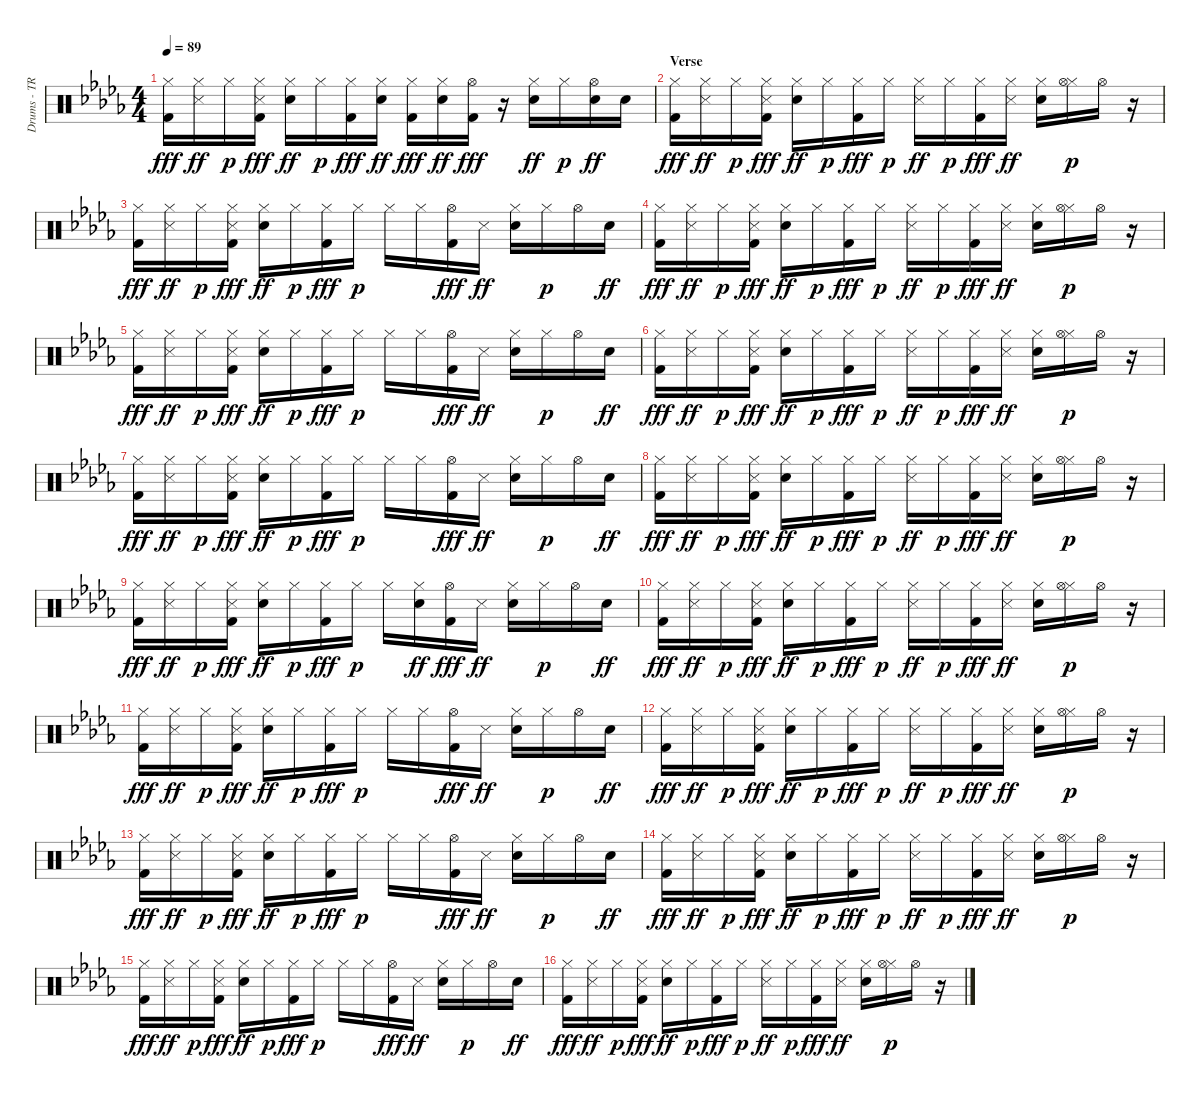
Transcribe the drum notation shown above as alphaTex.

\track ("Drums - TR808" "Drums - TR") {instrument percussion}
\staff {score}
\articulation defaults
\ts (4 4)
\tempo 89
\clef neutral
\ks bbminor
("Kick (hit) 2" "Hi-Hat (closed)").16{dy fff} ("Snare (side stick) 3" "Hi-Hat (closed)").16{dy ff} "Hi-Hat (closed)".16{dy p} ("Kick (hit) 2" "Snare (side stick) 3" "Hi-Hat (closed)").16{dy fff} ("Snare (hit) 2" "Hi-Hat (closed)").16{dy ff} "Hi-Hat (closed)".16{dy p} ("Kick (hit) 2" "Hi-Hat (closed)").16{dy fff} ("Snare (hit) 2" "Hi-Hat (closed)").16{dy ff} ("Kick (hit) 2" "Hi-Hat (closed)").16{dy fff} ("Snare (hit) 2" "Hi-Hat (closed)").16{dy ff} ("Kick (hit) 2" "Hi-Hat (open)").16{dy fff} r.16 ("Snare (hit) 2" "Hi-Hat (closed)").16{dy ff} "Hi-Hat (closed)".16{dy p} ("Snare (hit) 2" "Hi-Hat (open)").16{dy ff} "Snare (hit) 2".16 |
\section ("" "Verse")
("Kick (hit) 2" "Hi-Hat (closed)").16{dy fff} ("Snare (side stick) 3" "Hi-Hat (closed)").16{dy ff} "Hi-Hat (closed)".16{dy p} ("Kick (hit) 2" "Snare (side stick) 3" "Hi-Hat (closed)").16{dy fff} ("Snare (hit) 2" "Hi-Hat (closed)").16{dy ff} "Hi-Hat (closed)".16{dy p} ("Kick (hit) 2" "Hi-Hat (closed)").16{dy fff} "Hi-Hat (closed)".16{dy p} ("Snare (side stick) 3" "Hi-Hat (closed)").16{dy ff} "Hi-Hat (closed)".16{dy p} ("Kick (hit) 2" "Hi-Hat (closed)").16{dy fff} ("Snare (side stick) 3" "Hi-Hat (closed)").16{dy ff} ("Snare (hit) 2" "Hi-Hat (closed)").16 ("Hi-Hat (closed)" "Hi-Hat (open)").16{dy p} "Hi-Hat (open)".16 r.16 |
("Kick (hit) 2" "Hi-Hat (closed)").16{dy fff} ("Snare (side stick) 3" "Hi-Hat (closed)").16{dy ff} "Hi-Hat (closed)".16{dy p} ("Kick (hit) 2" "Snare (side stick) 3" "Hi-Hat (closed)").16{dy fff} ("Snare (hit) 2" "Hi-Hat (closed)").16{dy ff} "Hi-Hat (closed)".16{dy p} ("Kick (hit) 2" "Hi-Hat (closed)").16{dy fff} "Hi-Hat (closed)".16{dy p} "Hi-Hat (closed)".16 "Hi-Hat (closed)".16 ("Kick (hit) 2" "Hi-Hat (open)").16{dy fff} "Snare (side stick) 3".16{dy ff} ("Snare (hit) 2" "Hi-Hat (closed)").16 "Hi-Hat (closed)".16{dy p} "Hi-Hat (open)".16 "Snare (hit) 2".16{dy ff} |
("Kick (hit) 2" "Hi-Hat (closed)").16{dy fff} ("Snare (side stick) 3" "Hi-Hat (closed)").16{dy ff} "Hi-Hat (closed)".16{dy p} ("Kick (hit) 2" "Snare (side stick) 3" "Hi-Hat (closed)").16{dy fff} ("Snare (hit) 2" "Hi-Hat (closed)").16{dy ff} "Hi-Hat (closed)".16{dy p} ("Kick (hit) 2" "Hi-Hat (closed)").16{dy fff} "Hi-Hat (closed)".16{dy p} ("Snare (side stick) 3" "Hi-Hat (closed)").16{dy ff} "Hi-Hat (closed)".16{dy p} ("Kick (hit) 2" "Hi-Hat (closed)").16{dy fff} ("Snare (side stick) 3" "Hi-Hat (closed)").16{dy ff} ("Snare (hit) 2" "Hi-Hat (closed)").16 ("Hi-Hat (closed)" "Hi-Hat (open)").16{dy p} "Hi-Hat (open)".16 r.16 |
("Kick (hit) 2" "Hi-Hat (closed)").16{dy fff} ("Snare (side stick) 3" "Hi-Hat (closed)").16{dy ff} "Hi-Hat (closed)".16{dy p} ("Kick (hit) 2" "Snare (side stick) 3" "Hi-Hat (closed)").16{dy fff} ("Snare (hit) 2" "Hi-Hat (closed)").16{dy ff} "Hi-Hat (closed)".16{dy p} ("Kick (hit) 2" "Hi-Hat (closed)").16{dy fff} "Hi-Hat (closed)".16{dy p} "Hi-Hat (closed)".16 "Hi-Hat (closed)".16 ("Kick (hit) 2" "Hi-Hat (open)").16{dy fff} "Snare (side stick) 3".16{dy ff} ("Snare (hit) 2" "Hi-Hat (closed)").16 "Hi-Hat (closed)".16{dy p} "Hi-Hat (open)".16 "Snare (hit) 2".16{dy ff} |
("Kick (hit) 2" "Hi-Hat (closed)").16{dy fff} ("Snare (side stick) 3" "Hi-Hat (closed)").16{dy ff} "Hi-Hat (closed)".16{dy p} ("Kick (hit) 2" "Snare (side stick) 3" "Hi-Hat (closed)").16{dy fff} ("Snare (hit) 2" "Hi-Hat (closed)").16{dy ff} "Hi-Hat (closed)".16{dy p} ("Kick (hit) 2" "Hi-Hat (closed)").16{dy fff} "Hi-Hat (closed)".16{dy p} ("Snare (side stick) 3" "Hi-Hat (closed)").16{dy ff} "Hi-Hat (closed)".16{dy p} ("Kick (hit) 2" "Hi-Hat (closed)").16{dy fff} ("Snare (side stick) 3" "Hi-Hat (closed)").16{dy ff} ("Snare (hit) 2" "Hi-Hat (closed)").16 ("Hi-Hat (closed)" "Hi-Hat (open)").16{dy p} "Hi-Hat (open)".16 r.16 |
("Kick (hit) 2" "Hi-Hat (closed)").16{dy fff} ("Snare (side stick) 3" "Hi-Hat (closed)").16{dy ff} "Hi-Hat (closed)".16{dy p} ("Kick (hit) 2" "Snare (side stick) 3" "Hi-Hat (closed)").16{dy fff} ("Snare (hit) 2" "Hi-Hat (closed)").16{dy ff} "Hi-Hat (closed)".16{dy p} ("Kick (hit) 2" "Hi-Hat (closed)").16{dy fff} "Hi-Hat (closed)".16{dy p} "Hi-Hat (closed)".16 "Hi-Hat (closed)".16 ("Kick (hit) 2" "Hi-Hat (open)").16{dy fff} "Snare (side stick) 3".16{dy ff} ("Snare (hit) 2" "Hi-Hat (closed)").16 "Hi-Hat (closed)".16{dy p} "Hi-Hat (open)".16 "Snare (hit) 2".16{dy ff} |
("Kick (hit) 2" "Hi-Hat (closed)").16{dy fff} ("Snare (side stick) 3" "Hi-Hat (closed)").16{dy ff} "Hi-Hat (closed)".16{dy p} ("Kick (hit) 2" "Snare (side stick) 3" "Hi-Hat (closed)").16{dy fff} ("Snare (hit) 2" "Hi-Hat (closed)").16{dy ff} "Hi-Hat (closed)".16{dy p} ("Kick (hit) 2" "Hi-Hat (closed)").16{dy fff} "Hi-Hat (closed)".16{dy p} ("Snare (side stick) 3" "Hi-Hat (closed)").16{dy ff} "Hi-Hat (closed)".16{dy p} ("Kick (hit) 2" "Hi-Hat (closed)").16{dy fff} ("Snare (side stick) 3" "Hi-Hat (closed)").16{dy ff} ("Snare (hit) 2" "Hi-Hat (closed)").16 ("Hi-Hat (closed)" "Hi-Hat (open)").16{dy p} "Hi-Hat (open)".16 r.16 |
("Kick (hit) 2" "Hi-Hat (closed)").16{dy fff} ("Snare (side stick) 3" "Hi-Hat (closed)").16{dy ff} "Hi-Hat (closed)".16{dy p} ("Kick (hit) 2" "Snare (side stick) 3" "Hi-Hat (closed)").16{dy fff} ("Snare (hit) 2" "Hi-Hat (closed)").16{dy ff} "Hi-Hat (closed)".16{dy p} ("Kick (hit) 2" "Hi-Hat (closed)").16{dy fff} "Hi-Hat (closed)".16{dy p} "Hi-Hat (closed)".16 ("Snare (hit) 2" "Hi-Hat (closed)").16{dy ff} ("Kick (hit) 2" "Hi-Hat (open)").16{dy fff} "Snare (side stick) 3".16{dy ff} ("Snare (hit) 2" "Hi-Hat (closed)").16 "Hi-Hat (closed)".16{dy p} "Hi-Hat (open)".16 "Snare (hit) 2".16{dy ff} |
("Kick (hit) 2" "Hi-Hat (closed)").16{dy fff} ("Snare (side stick) 3" "Hi-Hat (closed)").16{dy ff} "Hi-Hat (closed)".16{dy p} ("Kick (hit) 2" "Snare (side stick) 3" "Hi-Hat (closed)").16{dy fff} ("Snare (hit) 2" "Hi-Hat (closed)").16{dy ff} "Hi-Hat (closed)".16{dy p} ("Kick (hit) 2" "Hi-Hat (closed)").16{dy fff} "Hi-Hat (closed)".16{dy p} ("Snare (side stick) 3" "Hi-Hat (closed)").16{dy ff} "Hi-Hat (closed)".16{dy p} ("Kick (hit) 2" "Hi-Hat (closed)").16{dy fff} ("Snare (side stick) 3" "Hi-Hat (closed)").16{dy ff} ("Snare (hit) 2" "Hi-Hat (closed)").16 ("Hi-Hat (closed)" "Hi-Hat (open)").16{dy p} "Hi-Hat (open)".16 r.16 |
("Kick (hit) 2" "Hi-Hat (closed)").16{dy fff} ("Snare (side stick) 3" "Hi-Hat (closed)").16{dy ff} "Hi-Hat (closed)".16{dy p} ("Kick (hit) 2" "Snare (side stick) 3" "Hi-Hat (closed)").16{dy fff} ("Snare (hit) 2" "Hi-Hat (closed)").16{dy ff} "Hi-Hat (closed)".16{dy p} ("Kick (hit) 2" "Hi-Hat (closed)").16{dy fff} "Hi-Hat (closed)".16{dy p} "Hi-Hat (closed)".16 "Hi-Hat (closed)".16 ("Kick (hit) 2" "Hi-Hat (open)").16{dy fff} "Snare (side stick) 3".16{dy ff} ("Snare (hit) 2" "Hi-Hat (closed)").16 "Hi-Hat (closed)".16{dy p} "Hi-Hat (open)".16 "Snare (hit) 2".16{dy ff} |
("Kick (hit) 2" "Hi-Hat (closed)").16{dy fff} ("Snare (side stick) 3" "Hi-Hat (closed)").16{dy ff} "Hi-Hat (closed)".16{dy p} ("Kick (hit) 2" "Snare (side stick) 3" "Hi-Hat (closed)").16{dy fff} ("Snare (hit) 2" "Hi-Hat (closed)").16{dy ff} "Hi-Hat (closed)".16{dy p} ("Kick (hit) 2" "Hi-Hat (closed)").16{dy fff} "Hi-Hat (closed)".16{dy p} ("Snare (side stick) 3" "Hi-Hat (closed)").16{dy ff} "Hi-Hat (closed)".16{dy p} ("Kick (hit) 2" "Hi-Hat (closed)").16{dy fff} ("Snare (side stick) 3" "Hi-Hat (closed)").16{dy ff} ("Snare (hit) 2" "Hi-Hat (closed)").16 ("Hi-Hat (closed)" "Hi-Hat (open)").16{dy p} "Hi-Hat (open)".16 r.16 |
("Kick (hit) 2" "Hi-Hat (closed)").16{dy fff} ("Snare (side stick) 3" "Hi-Hat (closed)").16{dy ff} "Hi-Hat (closed)".16{dy p} ("Kick (hit) 2" "Snare (side stick) 3" "Hi-Hat (closed)").16{dy fff} ("Snare (hit) 2" "Hi-Hat (closed)").16{dy ff} "Hi-Hat (closed)".16{dy p} ("Kick (hit) 2" "Hi-Hat (closed)").16{dy fff} "Hi-Hat (closed)".16{dy p} "Hi-Hat (closed)".16 "Hi-Hat (closed)".16 ("Kick (hit) 2" "Hi-Hat (open)").16{dy fff} "Snare (side stick) 3".16{dy ff} ("Snare (hit) 2" "Hi-Hat (closed)").16 "Hi-Hat (closed)".16{dy p} "Hi-Hat (open)".16 "Snare (hit) 2".16{dy ff} |
("Kick (hit) 2" "Hi-Hat (closed)").16{dy fff} ("Snare (side stick) 3" "Hi-Hat (closed)").16{dy ff} "Hi-Hat (closed)".16{dy p} ("Kick (hit) 2" "Snare (side stick) 3" "Hi-Hat (closed)").16{dy fff} ("Snare (hit) 2" "Hi-Hat (closed)").16{dy ff} "Hi-Hat (closed)".16{dy p} ("Kick (hit) 2" "Hi-Hat (closed)").16{dy fff} "Hi-Hat (closed)".16{dy p} ("Snare (side stick) 3" "Hi-Hat (closed)").16{dy ff} "Hi-Hat (closed)".16{dy p} ("Kick (hit) 2" "Hi-Hat (closed)").16{dy fff} ("Snare (side stick) 3" "Hi-Hat (closed)").16{dy ff} ("Snare (hit) 2" "Hi-Hat (closed)").16 ("Hi-Hat (closed)" "Hi-Hat (open)").16{dy p} "Hi-Hat (open)".16 r.16 |
("Kick (hit) 2" "Hi-Hat (closed)").16{dy fff} ("Snare (side stick) 3" "Hi-Hat (closed)").16{dy ff} "Hi-Hat (closed)".16{dy p} ("Kick (hit) 2" "Snare (side stick) 3" "Hi-Hat (closed)").16{dy fff} ("Snare (hit) 2" "Hi-Hat (closed)").16{dy ff} "Hi-Hat (closed)".16{dy p} ("Kick (hit) 2" "Hi-Hat (closed)").16{dy fff} "Hi-Hat (closed)".16{dy p} "Hi-Hat (closed)".16 "Hi-Hat (closed)".16 ("Kick (hit) 2" "Hi-Hat (open)").16{dy fff} "Snare (side stick) 3".16{dy ff} ("Snare (hit) 2" "Hi-Hat (closed)").16 "Hi-Hat (closed)".16{dy p} "Hi-Hat (open)".16 "Snare (hit) 2".16{dy ff} |
("Kick (hit) 2" "Hi-Hat (closed)").16{dy fff} ("Snare (side stick) 3" "Hi-Hat (closed)").16{dy ff} "Hi-Hat (closed)".16{dy p} ("Kick (hit) 2" "Snare (side stick) 3" "Hi-Hat (closed)").16{dy fff} ("Snare (hit) 2" "Hi-Hat (closed)").16{dy ff} "Hi-Hat (closed)".16{dy p} ("Kick (hit) 2" "Hi-Hat (closed)").16{dy fff} "Hi-Hat (closed)".16{dy p} ("Snare (side stick) 3" "Hi-Hat (closed)").16{dy ff} "Hi-Hat (closed)".16{dy p} ("Kick (hit) 2" "Hi-Hat (closed)").16{dy fff} ("Snare (side stick) 3" "Hi-Hat (closed)").16{dy ff} ("Snare (hit) 2" "Hi-Hat (closed)").16 ("Hi-Hat (closed)" "Hi-Hat (open)").16{dy p} "Hi-Hat (open)".16 r.16
